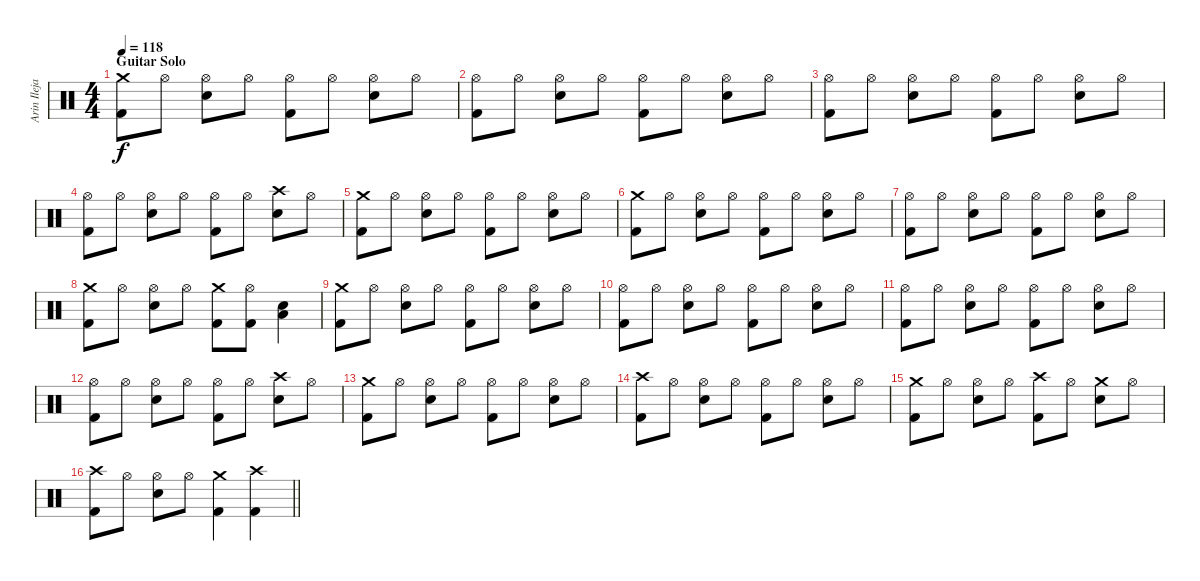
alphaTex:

\track ("Arin Ilejay" "Arin Ileja") {instrument percussion bank 164}
\staff {score}
\articulation defaults
\ts (4 4)
\section ("" "Guitar Solo")
\tempo 118
\clef neutral
\ks c
("Crash medium (hit)" "Kick (hit) 2").8{dy f} "Hi-Hat (open)".8 ("Hi-Hat (open)" "Electric Snare (hit)").8 "Hi-Hat (open)".8 ("Hi-Hat (open)" "Kick (hit) 2").8 "Hi-Hat (open)".8 ("Hi-Hat (open)" "Electric Snare (hit)").8 "Hi-Hat (open)".8 |
("Hi-Hat (open)" "Kick (hit) 2").8 "Hi-Hat (open)".8 ("Hi-Hat (open)" "Electric Snare (hit)").8 "Hi-Hat (open)".8 ("Hi-Hat (open)" "Kick (hit) 2").8 "Hi-Hat (open)".8 ("Hi-Hat (open)" "Electric Snare (hit)").8 "Hi-Hat (open)".8 |
("Hi-Hat (open)" "Kick (hit) 2").8 "Hi-Hat (open)".8 ("Hi-Hat (open)" "Electric Snare (hit)").8 "Hi-Hat (open)".8 ("Hi-Hat (open)" "Kick (hit) 2").8 "Hi-Hat (open)".8 ("Hi-Hat (open)" "Electric Snare (hit)").8 "Hi-Hat (open)".8 |
("Hi-Hat (open)" "Kick (hit) 2").8 "Hi-Hat (open)".8 ("Hi-Hat (open)" "Electric Snare (hit)").8 "Hi-Hat (open)".8 ("Hi-Hat (open)" "Kick (hit) 2").8 "Hi-Hat (open)".8 ("Crash high (hit)" "Electric Snare (hit)").8 "Hi-Hat (open)".8 |
("Crash medium (hit)" "Kick (hit) 2").8 "Hi-Hat (open)".8 ("Hi-Hat (open)" "Electric Snare (hit)").8 "Hi-Hat (open)".8 ("Hi-Hat (open)" "Kick (hit) 2").8 "Hi-Hat (open)".8 ("Hi-Hat (open)" "Electric Snare (hit)").8 "Hi-Hat (open)".8 |
("Crash medium (hit)" "Kick (hit) 2").8 "Hi-Hat (open)".8 ("Hi-Hat (open)" "Electric Snare (hit)").8 "Hi-Hat (open)".8 ("Hi-Hat (open)" "Kick (hit) 2").8 "Hi-Hat (open)".8 ("Hi-Hat (open)" "Electric Snare (hit)").8 "Hi-Hat (open)".8 |
("Hi-Hat (open)" "Kick (hit) 2").8 "Hi-Hat (open)".8 ("Hi-Hat (open)" "Electric Snare (hit)").8 "Hi-Hat (open)".8 ("Hi-Hat (open)" "Kick (hit) 2").8 "Hi-Hat (open)".8 ("Hi-Hat (open)" "Electric Snare (hit)").8 "Hi-Hat (open)".8 |
("Crash medium (hit)" "Kick (hit) 2").8 "Hi-Hat (open)".8 ("Hi-Hat (open)" "Electric Snare (hit)").8 "Hi-Hat (open)".8 ("Crash medium (hit)" "Kick (hit) 2").8 ("Hi-Hat (open)" "Kick (hit) 2").8 ("Low Floor Tom (hit)" "Electric Snare (hit)").4 |
("Crash medium (hit)" "Kick (hit) 2").8 "Hi-Hat (open)".8 ("Hi-Hat (open)" "Electric Snare (hit)").8 "Hi-Hat (open)".8 ("Hi-Hat (open)" "Kick (hit) 2").8 "Hi-Hat (open)".8 ("Hi-Hat (open)" "Electric Snare (hit)").8 "Hi-Hat (open)".8 |
("Hi-Hat (open)" "Kick (hit) 2").8 "Hi-Hat (open)".8 ("Hi-Hat (open)" "Electric Snare (hit)").8 "Hi-Hat (open)".8 ("Hi-Hat (open)" "Kick (hit) 2").8 "Hi-Hat (open)".8 ("Hi-Hat (open)" "Electric Snare (hit)").8 "Hi-Hat (open)".8 |
("Hi-Hat (open)" "Kick (hit) 2").8 "Hi-Hat (open)".8 ("Hi-Hat (open)" "Electric Snare (hit)").8 "Hi-Hat (open)".8 ("Hi-Hat (open)" "Kick (hit) 2").8 "Hi-Hat (open)".8 ("Hi-Hat (open)" "Electric Snare (hit)").8 "Hi-Hat (open)".8 |
("Hi-Hat (open)" "Kick (hit) 2").8 "Hi-Hat (open)".8 ("Hi-Hat (open)" "Electric Snare (hit)").8 "Hi-Hat (open)".8 ("Hi-Hat (open)" "Kick (hit) 2").8 "Hi-Hat (open)".8 ("Crash high (hit)" "Electric Snare (hit)").8 "Hi-Hat (open)".8 |
("Crash medium (hit)" "Kick (hit) 2").8 "Hi-Hat (open)".8 ("Hi-Hat (open)" "Electric Snare (hit)").8 "Hi-Hat (open)".8 ("Hi-Hat (open)" "Kick (hit) 2").8 "Hi-Hat (open)".8 ("Hi-Hat (open)" "Electric Snare (hit)").8 "Hi-Hat (open)".8 |
("Crash high (hit)" "Kick (hit) 2").8 "Hi-Hat (open)".8 ("Hi-Hat (open)" "Electric Snare (hit)").8 "Hi-Hat (open)".8 ("Hi-Hat (open)" "Kick (hit) 2").8 "Hi-Hat (open)".8 ("Hi-Hat (open)" "Electric Snare (hit)").8 "Hi-Hat (open)".8 |
("Crash medium (hit)" "Kick (hit) 2").8 "Hi-Hat (open)".8 ("Hi-Hat (open)" "Electric Snare (hit)").8 "Hi-Hat (open)".8 ("Crash high (hit)" "Kick (hit) 2").8 "Hi-Hat (open)".8 ("Crash medium (hit)" "Electric Snare (hit)").8 "Hi-Hat (open)".8 |
\barLineRight lightlight
("Crash high (hit)" "Kick (hit) 2").8 "Hi-Hat (open)".8 ("Hi-Hat (open)" "Electric Snare (hit)").8 "Hi-Hat (open)".8 ("Crash medium (hit)" "Kick (hit) 2").4 ("Crash high (hit)" "Kick (hit) 2").4
